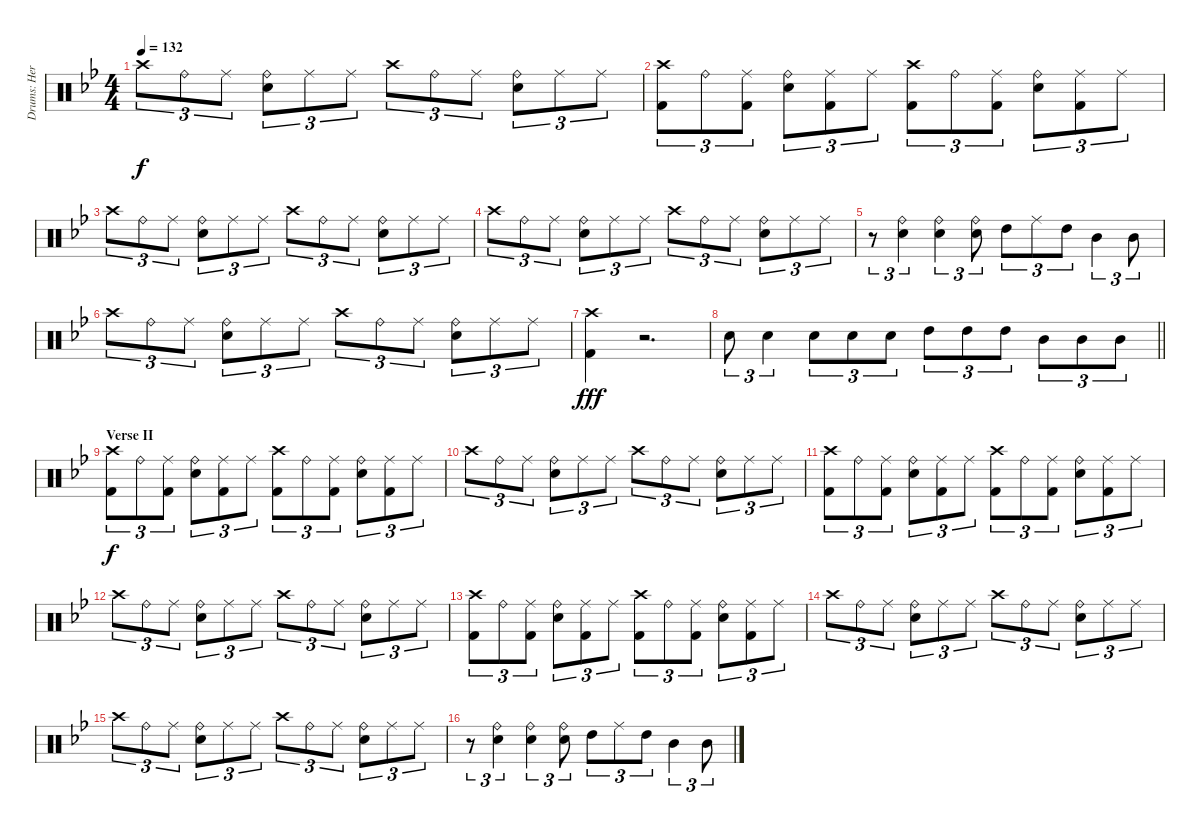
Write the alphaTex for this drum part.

\track ("Drums: Herman" "Drums: Her") {instrument percussion}
\staff {score}
\articulation defaults
\ts (4 4)
\tempo 132
\clef neutral
\ks bb "Crash high (hit)".8{tu (3 2) dy f} "Ride (bell)".8{tu (3 2)} "Ride (middle)".8{tu (3 2)}
("Ride (bell)" "Snare (hit) 2").8{tu (3 2)} "Ride (middle)".8{tu (3 2)} "Ride (middle)".8{tu (3 2)} "Crash high (hit)".8{tu (3 2)} "Ride (bell)".8{tu (3 2)} "Ride (middle)".8{tu (3 2)} ("Ride (bell)" "Snare (hit) 2").8{tu (3 2)} "Ride (middle)".8{tu (3 2)} "Ride (middle)".8{tu (3 2)} |
("Crash high (hit)" "Kick (hit) 2").8{tu (3 2)} "Ride (bell)".8{tu (3 2)} ("Ride (middle)" "Kick (hit) 2").8{tu (3 2)} ("Ride (bell)" "Snare (hit) 2").8{tu (3 2)} ("Ride (middle)" "Kick (hit) 2").8{tu (3 2)} "Ride (middle)".8{tu (3 2)} ("Crash high (hit)" "Kick (hit) 2").8{tu (3 2)} "Ride (bell)".8{tu (3 2)} ("Ride (middle)" "Kick (hit) 2").8{tu (3 2)} ("Ride (bell)" "Snare (hit) 2").8{tu (3 2)} ("Ride (middle)" "Kick (hit) 2").8{tu (3 2)} "Ride (middle)".8{tu (3 2)} |
"Crash high (hit)".8{tu (3 2)} "Ride (bell)".8{tu (3 2)} "Ride (middle)".8{tu (3 2)} ("Ride (bell)" "Snare (hit) 2").8{tu (3 2)} "Ride (middle)".8{tu (3 2)} "Ride (middle)".8{tu (3 2)} "Crash high (hit)".8{tu (3 2)} "Ride (bell)".8{tu (3 2)} "Ride (middle)".8{tu (3 2)} ("Ride (bell)" "Snare (hit) 2").8{tu (3 2)} "Ride (middle)".8{tu (3 2)} "Ride (middle)".8{tu (3 2)} |
"Crash high (hit)".8{tu (3 2)} "Ride (bell)".8{tu (3 2)} "Ride (middle)".8{tu (3 2)} ("Ride (bell)" "Snare (hit) 2").8{tu (3 2)} "Ride (middle)".8{tu (3 2)} "Ride (middle)".8{tu (3 2)} "Crash high (hit)".8{tu (3 2)} "Ride (bell)".8{tu (3 2)} "Ride (middle)".8{tu (3 2)} ("Ride (bell)" "Snare (hit) 2").8{tu (3 2)} "Ride (middle)".8{tu (3 2)} "Ride (middle)".8{tu (3 2)} |
r.8{tu (3 2)} ("Ride (bell)" "Snare (hit) 2").4{tu (3 2)} ("Ride (bell)" "Snare (hit) 2").4{tu (3 2)} ("Ride (bell)" "Snare (hit) 2").8{tu (3 2)} "High Tom (hit)".8{tu (3 2)} "Ride (middle)".8{tu (3 2)} "High Tom (hit)".8{tu (3 2)} "Mid Tom (hit)".4{tu (3 2)} "Mid Tom (hit)".8{tu (3 2)} |
"Crash high (hit)".8{tu (3 2)} "Ride (bell)".8{tu (3 2)} "Ride (middle)".8{tu (3 2)} ("Ride (bell)" "Snare (hit) 2").8{tu (3 2)} "Ride (middle)".8{tu (3 2)} "Ride (middle)".8{tu (3 2)} "Crash high (hit)".8{tu (3 2)} "Ride (bell)".8{tu (3 2)} "Ride (middle)".8{tu (3 2)} ("Ride (bell)" "Snare (hit) 2").8{tu (3 2)} "Ride (middle)".8{tu (3 2)} "Ride (middle)".8{tu (3 2)} |
("Crash high (hit)" "Kick (hit) 2").4{dy fff} r.2{d} |
\barLineRight lightlight "Snare (hit) 2".8{tu (3 2)} "Snare (hit) 2".4{tu (3 2)} "Snare (hit) 2".8{tu (3 2)} "Snare (hit) 2".8{tu (3 2)} "Snare (hit) 2".8{tu (3 2)} "High Tom (hit)".8{tu (3 2)} "High Tom (hit)".8{tu (3 2)} "High Tom (hit)".8{tu (3 2)} "Mid Tom (hit)".8{tu (3 2)} "Mid Tom (hit)".8{tu (3 2)} "Mid Tom (hit)".8{tu (3 2)}
|
\section ("" "Verse II")
("Crash high (hit)" "Kick (hit) 2").8{tu (3 2) dy f} "Ride (bell)".8{tu (3 2)} ("Ride (middle)" "Kick (hit) 2").8{tu (3 2)} ("Ride (bell)" "Snare (hit) 2").8{tu (3 2)} ("Ride (middle)" "Kick (hit) 2").8{tu (3 2)} "Ride (middle)".8{tu (3 2)} ("Crash high (hit)" "Kick (hit) 2").8{tu (3 2)} "Ride (bell)".8{tu (3 2)} ("Ride (middle)" "Kick (hit) 2").8{tu (3 2)} ("Ride (bell)" "Snare (hit) 2").8{tu (3 2)} ("Ride (middle)" "Kick (hit) 2").8{tu (3 2)} "Ride (middle)".8{tu (3 2)} |
"Crash high (hit)".8{tu (3 2)} "Ride (bell)".8{tu (3 2)} "Ride (middle)".8{tu (3 2)} ("Ride (bell)" "Snare (hit) 2").8{tu (3 2)} "Ride (middle)".8{tu (3 2)} "Ride (middle)".8{tu (3 2)} "Crash high (hit)".8{tu (3 2)} "Ride (bell)".8{tu (3 2)} "Ride (middle)".8{tu (3 2)} ("Ride (bell)" "Snare (hit) 2").8{tu (3 2)} "Ride (middle)".8{tu (3 2)} "Ride (middle)".8{tu (3 2)} |
("Crash high (hit)" "Kick (hit) 2").8{tu (3 2)} "Ride (bell)".8{tu (3 2)} ("Ride (middle)" "Kick (hit) 2").8{tu (3 2)} ("Ride (bell)" "Snare (hit) 2").8{tu (3 2)} ("Ride (middle)" "Kick (hit) 2").8{tu (3 2)} "Ride (middle)".8{tu (3 2)} ("Crash high (hit)" "Kick (hit) 2").8{tu (3 2)} "Ride (bell)".8{tu (3 2)} ("Ride (middle)" "Kick (hit) 2").8{tu (3 2)} ("Ride (bell)" "Snare (hit) 2").8{tu (3 2)} ("Ride (middle)" "Kick (hit) 2").8{tu (3 2)} "Ride (middle)".8{tu (3 2)} |
"Crash high (hit)".8{tu (3 2)} "Ride (bell)".8{tu (3 2)} "Ride (middle)".8{tu (3 2)} ("Ride (bell)" "Snare (hit) 2").8{tu (3 2)} "Ride (middle)".8{tu (3 2)} "Ride (middle)".8{tu (3 2)} "Crash high (hit)".8{tu (3 2)} "Ride (bell)".8{tu (3 2)} "Ride (middle)".8{tu (3 2)} ("Ride (bell)" "Snare (hit) 2").8{tu (3 2)} "Ride (middle)".8{tu (3 2)} "Ride (middle)".8{tu (3 2)} |
("Crash high (hit)" "Kick (hit) 2").8{tu (3 2)} "Ride (bell)".8{tu (3 2)} ("Ride (middle)" "Kick (hit) 2").8{tu (3 2)} ("Ride (bell)" "Snare (hit) 2").8{tu (3 2)} ("Ride (middle)" "Kick (hit) 2").8{tu (3 2)} "Ride (middle)".8{tu (3 2)} ("Crash high (hit)" "Kick (hit) 2").8{tu (3 2)} "Ride (bell)".8{tu (3 2)} ("Ride (middle)" "Kick (hit) 2").8{tu (3 2)} ("Ride (bell)" "Snare (hit) 2").8{tu (3 2)} ("Ride (middle)" "Kick (hit) 2").8{tu (3 2)} "Ride (middle)".8{tu (3 2)} |
"Crash high (hit)".8{tu (3 2)} "Ride (bell)".8{tu (3 2)} "Ride (middle)".8{tu (3 2)} ("Ride (bell)" "Snare (hit) 2").8{tu (3 2)} "Ride (middle)".8{tu (3 2)} "Ride (middle)".8{tu (3 2)} "Crash high (hit)".8{tu (3 2)} "Ride (bell)".8{tu (3 2)} "Ride (middle)".8{tu (3 2)} ("Ride (bell)" "Snare (hit) 2").8{tu (3 2)} "Ride (middle)".8{tu (3 2)} "Ride (middle)".8{tu (3 2)} |
"Crash high (hit)".8{tu (3 2)} "Ride (bell)".8{tu (3 2)} "Ride (middle)".8{tu (3 2)} ("Ride (bell)" "Snare (hit) 2").8{tu (3 2)} "Ride (middle)".8{tu (3 2)} "Ride (middle)".8{tu (3 2)} "Crash high (hit)".8{tu (3 2)} "Ride (bell)".8{tu (3 2)} "Ride (middle)".8{tu (3 2)} ("Ride (bell)" "Snare (hit) 2").8{tu (3 2)} "Ride (middle)".8{tu (3 2)} "Ride (middle)".8{tu (3 2)} |
r.8{tu (3 2)} ("Ride (bell)" "Snare (hit) 2").4{tu (3 2)} ("Ride (bell)" "Snare (hit) 2").4{tu (3 2)} ("Ride (bell)" "Snare (hit) 2").8{tu (3 2)} "High Tom (hit)".8{tu (3 2)} "Ride (middle)".8{tu (3 2)} "High Tom (hit)".8{tu (3 2)} "Mid Tom (hit)".4{tu (3 2)} "Mid Tom (hit)".8{tu (3 2)}
